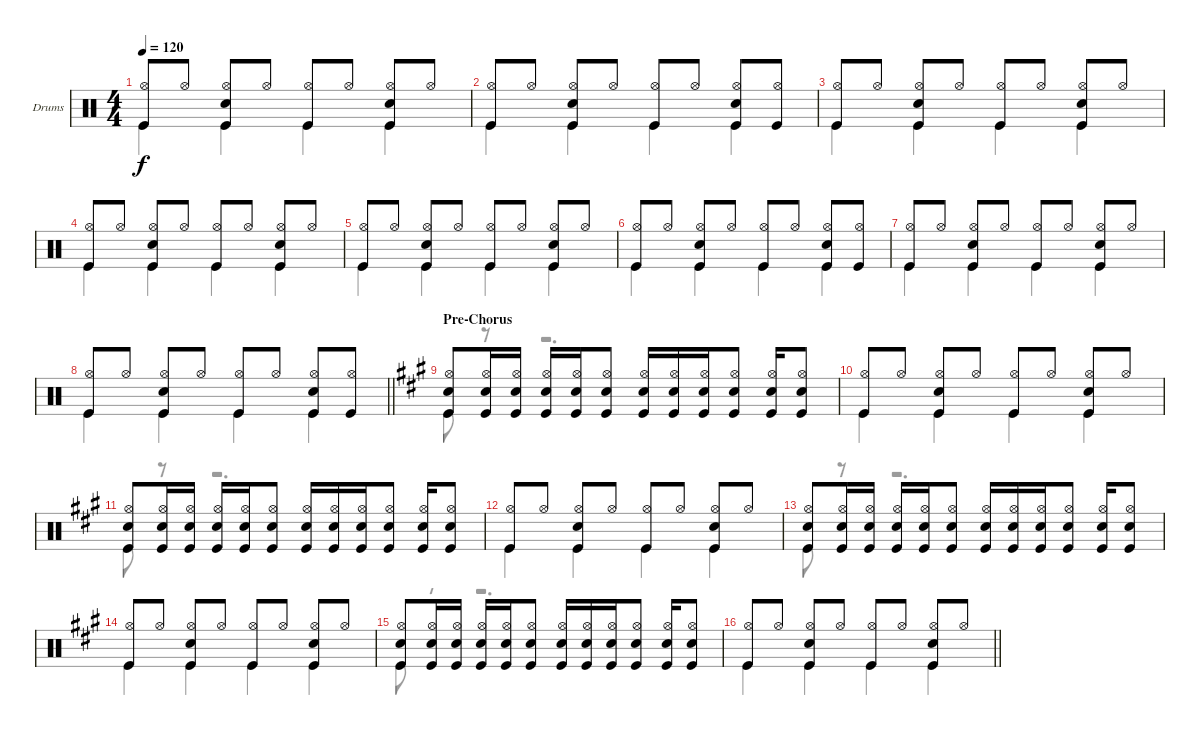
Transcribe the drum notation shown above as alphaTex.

\bracketExtendMode groupsimilarinstruments
\firstSystemTrackNameOrientation horizontal
\otherSystemsTrackNameOrientation horizontal
\track ("Drumkit" "Drums") {instrument percussion}
\staff {score}
\articulation defaults
\voice
\ts (4 4)
\tempo 120
\clef neutral
\ks c
("Kick (hit)" "Hi-Hat (open)").8{dy f} "Hi-Hat (open)".8 ("Kick (hit)" "Hi-Hat (open)" "Snare (hit) 2").8 "Hi-Hat (open)".8 ("Kick (hit)" "Hi-Hat (open)").8 "Hi-Hat (open)".8 ("Kick (hit)" "Hi-Hat (open)" "Snare (hit) 2").8 "Hi-Hat (open)".8 |
("Kick (hit)" "Hi-Hat (open)").8 "Hi-Hat (open)".8 ("Kick (hit)" "Hi-Hat (open)" "Snare (hit) 2").8 "Hi-Hat (open)".8 ("Kick (hit)" "Hi-Hat (open)").8 "Hi-Hat (open)".8 ("Kick (hit)" "Hi-Hat (open)" "Snare (hit) 2").8 ("Kick (hit)" "Hi-Hat (open)").8 |
("Kick (hit)" "Hi-Hat (open)").8 "Hi-Hat (open)".8 ("Kick (hit)" "Hi-Hat (open)" "Snare (hit) 2").8 "Hi-Hat (open)".8 ("Kick (hit)" "Hi-Hat (open)").8 "Hi-Hat (open)".8 ("Kick (hit)" "Hi-Hat (open)" "Snare (hit) 2").8 "Hi-Hat (open)".8 |
("Kick (hit)" "Hi-Hat (open)").8 "Hi-Hat (open)".8 ("Kick (hit)" "Hi-Hat (open)" "Snare (hit) 2").8 "Hi-Hat (open)".8 ("Kick (hit)" "Hi-Hat (open)").8 "Hi-Hat (open)".8 ("Kick (hit)" "Hi-Hat (open)" "Snare (hit) 2").8 "Hi-Hat (open)".8 |
("Kick (hit)" "Hi-Hat (open)").8 "Hi-Hat (open)".8 ("Kick (hit)" "Hi-Hat (open)" "Snare (hit) 2").8 "Hi-Hat (open)".8 ("Kick (hit)" "Hi-Hat (open)").8 "Hi-Hat (open)".8 ("Kick (hit)" "Hi-Hat (open)" "Snare (hit) 2").8 "Hi-Hat (open)".8 |
("Kick (hit)" "Hi-Hat (open)").8 "Hi-Hat (open)".8 ("Kick (hit)" "Hi-Hat (open)" "Snare (hit) 2").8 "Hi-Hat (open)".8 ("Kick (hit)" "Hi-Hat (open)").8 "Hi-Hat (open)".8 ("Kick (hit)" "Hi-Hat (open)" "Snare (hit) 2").8 ("Kick (hit)" "Hi-Hat (open)").8 |
("Kick (hit)" "Hi-Hat (open)").8 "Hi-Hat (open)".8 ("Kick (hit)" "Hi-Hat (open)" "Snare (hit) 2").8 "Hi-Hat (open)".8 ("Kick (hit)" "Hi-Hat (open)").8 "Hi-Hat (open)".8 ("Kick (hit)" "Hi-Hat (open)" "Snare (hit) 2").8 "Hi-Hat (open)".8 |
\barLineRight lightlight
("Kick (hit)" "Hi-Hat (open)").8 "Hi-Hat (open)".8 ("Kick (hit)" "Hi-Hat (open)" "Snare (hit) 2").8 "Hi-Hat (open)".8 ("Kick (hit)" "Hi-Hat (open)").8 "Hi-Hat (open)".8 ("Kick (hit)" "Hi-Hat (open)" "Snare (hit) 2").8 ("Kick (hit)" "Hi-Hat (open)").8 |
\section ("" "Pre-Chorus")
\ks a
("Kick (hit)" "Hi-Hat (open)" "Snare (hit) 2").8 ("Snare (hit) 2" "Kick (hit)" "Hi-Hat (open)").16 ("Snare (hit) 2" "Kick (hit)" "Hi-Hat (open)").16 ("Snare (hit) 2" "Kick (hit)" "Hi-Hat (open)").16 ("Snare (hit) 2" "Kick (hit)" "Hi-Hat (open)").16 ("Kick (hit)" "Hi-Hat (open)" "Snare (hit) 2").8 ("Snare (hit) 2" "Kick (hit)" "Hi-Hat (open)").16 ("Snare (hit) 2" "Kick (hit)" "Hi-Hat (open)").16 ("Snare (hit) 2" "Kick (hit)" "Hi-Hat (open)").16 ("Snare (hit) 2" "Kick (hit)" "Hi-Hat (open)").8 ("Snare (hit) 2" "Kick (hit)" "Hi-Hat (open)").16 ("Snare (hit) 2" "Kick (hit)" "Hi-Hat (open)").8 |
("Kick (hit)" "Hi-Hat (open)").8 "Hi-Hat (open)".8 ("Kick (hit)" "Hi-Hat (open)" "Snare (hit) 2").8 "Hi-Hat (open)".8 ("Kick (hit)" "Hi-Hat (open)").8 "Hi-Hat (open)".8 ("Kick (hit)" "Hi-Hat (open)" "Snare (hit) 2").8 "Hi-Hat (open)".8 |
("Kick (hit)" "Hi-Hat (open)" "Snare (hit) 2").8 ("Snare (hit) 2" "Kick (hit)" "Hi-Hat (open)").16 ("Snare (hit) 2" "Kick (hit)" "Hi-Hat (open)").16 ("Snare (hit) 2" "Kick (hit)" "Hi-Hat (open)").16 ("Snare (hit) 2" "Kick (hit)" "Hi-Hat (open)").16 ("Kick (hit)" "Hi-Hat (open)" "Snare (hit) 2").8 ("Snare (hit) 2" "Kick (hit)" "Hi-Hat (open)").16 ("Snare (hit) 2" "Kick (hit)" "Hi-Hat (open)").16 ("Snare (hit) 2" "Kick (hit)" "Hi-Hat (open)").16 ("Snare (hit) 2" "Kick (hit)" "Hi-Hat (open)").8 ("Snare (hit) 2" "Kick (hit)" "Hi-Hat (open)").16 ("Snare (hit) 2" "Kick (hit)" "Hi-Hat (open)").8 |
("Kick (hit)" "Hi-Hat (open)").8 "Hi-Hat (open)".8 ("Kick (hit)" "Hi-Hat (open)" "Snare (hit) 2").8 "Hi-Hat (open)".8 ("Kick (hit)" "Hi-Hat (open)").8 "Hi-Hat (open)".8 ("Kick (hit)" "Hi-Hat (open)" "Snare (hit) 2").8 "Hi-Hat (open)".8 |
("Kick (hit)" "Hi-Hat (open)" "Snare (hit) 2").8 ("Snare (hit) 2" "Kick (hit)" "Hi-Hat (open)").16 ("Snare (hit) 2" "Kick (hit)" "Hi-Hat (open)").16 ("Snare (hit) 2" "Kick (hit)" "Hi-Hat (open)").16 ("Snare (hit) 2" "Kick (hit)" "Hi-Hat (open)").16 ("Kick (hit)" "Hi-Hat (open)" "Snare (hit) 2").8 ("Snare (hit) 2" "Kick (hit)" "Hi-Hat (open)").16 ("Snare (hit) 2" "Kick (hit)" "Hi-Hat (open)").16 ("Snare (hit) 2" "Kick (hit)" "Hi-Hat (open)").16 ("Snare (hit) 2" "Kick (hit)" "Hi-Hat (open)").8 ("Snare (hit) 2" "Kick (hit)" "Hi-Hat (open)").16 ("Snare (hit) 2" "Kick (hit)" "Hi-Hat (open)").8 |
("Kick (hit)" "Hi-Hat (open)").8 "Hi-Hat (open)".8 ("Kick (hit)" "Hi-Hat (open)" "Snare (hit) 2").8 "Hi-Hat (open)".8 ("Kick (hit)" "Hi-Hat (open)").8 "Hi-Hat (open)".8 ("Kick (hit)" "Hi-Hat (open)" "Snare (hit) 2").8 "Hi-Hat (open)".8 |
("Kick (hit)" "Hi-Hat (open)" "Snare (hit) 2").8 ("Snare (hit) 2" "Kick (hit)" "Hi-Hat (open)").16 ("Snare (hit) 2" "Kick (hit)" "Hi-Hat (open)").16 ("Snare (hit) 2" "Kick (hit)" "Hi-Hat (open)").16 ("Snare (hit) 2" "Kick (hit)" "Hi-Hat (open)").16 ("Kick (hit)" "Hi-Hat (open)" "Snare (hit) 2").8 ("Snare (hit) 2" "Kick (hit)" "Hi-Hat (open)").16 ("Snare (hit) 2" "Kick (hit)" "Hi-Hat (open)").16 ("Snare (hit) 2" "Kick (hit)" "Hi-Hat (open)").16 ("Snare (hit) 2" "Kick (hit)" "Hi-Hat (open)").8 ("Snare (hit) 2" "Kick (hit)" "Hi-Hat (open)").16 ("Snare (hit) 2" "Kick (hit)" "Hi-Hat (open)").8 |
\barLineRight lightlight
("Kick (hit)" "Hi-Hat (open)").8 "Hi-Hat (open)".8 ("Kick (hit)" "Hi-Hat (open)" "Snare (hit) 2").8 "Hi-Hat (open)".8 ("Kick (hit)" "Hi-Hat (open)").8 "Hi-Hat (open)".8 ("Kick (hit)" "Hi-Hat (open)" "Snare (hit) 2").8 "Hi-Hat (open)".8
\voice
\clef neutral
\ottava regular
\simile none
\ks c "Kick (hit)".4{dy f} "Kick (hit)".4 "Kick (hit)".4 "Kick (hit)".4
|
"Kick (hit)".4 "Kick (hit)".4 "Kick (hit)".4 "Kick (hit)".4 |
"Kick (hit)".4 "Kick (hit)".4 "Kick (hit)".4 "Kick (hit)".4 |
"Kick (hit)".4 "Kick (hit)".4 "Kick (hit)".4 "Kick (hit)".4 |
"Kick (hit)".4 "Kick (hit)".4 "Kick (hit)".4 "Kick (hit)".4 |
"Kick (hit)".4 "Kick (hit)".4 "Kick (hit)".4 "Kick (hit)".4 |
"Kick (hit)".4 "Kick (hit)".4 "Kick (hit)".4 "Kick (hit)".4 |
\barLineRight lightlight "Kick (hit)".4 "Kick (hit)".4 "Kick (hit)".4 "Kick (hit)".4
|
\ks a "Kick (hit)".8
r.8 r.2{d} |
"Kick (hit)".4 "Kick (hit)".4 "Kick (hit)".4 "Kick (hit)".4 |
"Kick (hit)".8 r.8 r.2{d} |
"Kick (hit)".4 "Kick (hit)".4 "Kick (hit)".4 "Kick (hit)".4 |
"Kick (hit)".8 r.8 r.2{d} |
"Kick (hit)".4 "Kick (hit)".4 "Kick (hit)".4 "Kick (hit)".4 |
"Kick (hit)".8 r.8 r.2{d} |
\barLineRight lightlight "Kick (hit)".4 "Kick (hit)".4 "Kick (hit)".4 "Kick (hit)".4
